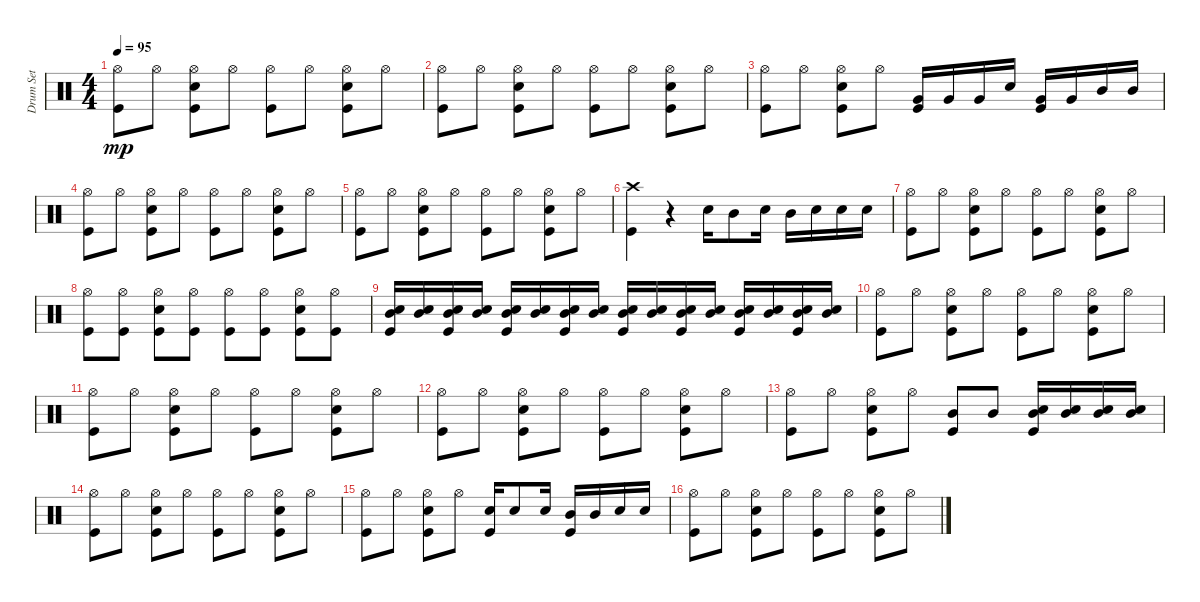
\track ("Drum Set" "Drum Set") {instrument percussion}
\staff {score}
\articulation defaults
\ts (4 4)
\tempo 95
\clef neutral
\ks c
("Kick (hit)" "Hi-Hat (open)").8{dy mp} "Hi-Hat (open)".8 ("Kick (hit)" "Snare (hit) 2" "Hi-Hat (open)").8 "Hi-Hat (open)".8 ("Kick (hit)" "Hi-Hat (open)").8 "Hi-Hat (open)".8 ("Kick (hit)" "Snare (hit) 2" "Hi-Hat (open)").8 "Hi-Hat (open)".8 |
("Kick (hit)" "Hi-Hat (open)").8 "Hi-Hat (open)".8 ("Kick (hit)" "Snare (hit) 2" "Hi-Hat (open)").8 "Hi-Hat (open)".8 ("Kick (hit)" "Hi-Hat (open)").8 "Hi-Hat (open)".8 ("Kick (hit)" "Snare (hit) 2" "Hi-Hat (open)").8 "Hi-Hat (open)".8 |
("Kick (hit)" "Hi-Hat (open)").8 "Hi-Hat (open)".8 ("Kick (hit)" "Snare (hit) 2" "Hi-Hat (open)").8 "Hi-Hat (open)".8 ("Kick (hit)" "Very Low Tom (hit)").16 "Very Low Tom (hit)".16 "Very Low Tom (hit)".16 "Snare (hit) 2".16 ("Kick (hit)" "Very Low Tom (hit)").16 "Very Low Tom (hit)".16 "Mid Tom (hit)".16 "Mid Tom (hit)".16 |
("Kick (hit)" "Hi-Hat (open)").8 "Hi-Hat (open)".8 ("Kick (hit)" "Snare (hit) 2" "Hi-Hat (open)").8 "Hi-Hat (open)".8 ("Kick (hit)" "Hi-Hat (open)").8 "Hi-Hat (open)".8 ("Kick (hit)" "Snare (hit) 2" "Hi-Hat (open)").8 "Hi-Hat (open)".8 |
("Kick (hit)" "Hi-Hat (open)").8 "Hi-Hat (open)".8 ("Kick (hit)" "Snare (hit) 2" "Hi-Hat (open)").8 "Hi-Hat (open)".8 ("Kick (hit)" "Hi-Hat (open)").8 "Hi-Hat (open)".8 ("Kick (hit)" "Snare (hit) 2" "Hi-Hat (open)").8 "Hi-Hat (open)".8 |
("Kick (hit)" "Crash high (hit)").4 r.4 "Snare (hit) 2".16 "Mid Tom (hit)".8 "Snare (hit) 2".16 "Mid Tom (hit)".16 "Snare (hit) 2".16 "Snare (hit) 2".16 "Snare (hit) 2".16 |
("Kick (hit)" "Hi-Hat (open)").8 "Hi-Hat (open)".8 ("Kick (hit)" "Snare (hit) 2" "Hi-Hat (open)").8 "Hi-Hat (open)".8 ("Kick (hit)" "Hi-Hat (open)").8 "Hi-Hat (open)".8 ("Kick (hit)" "Snare (hit) 2" "Hi-Hat (open)").8 "Hi-Hat (open)".8 |
("Kick (hit)" "Hi-Hat (open)").8 ("Kick (hit)" "Hi-Hat (open)").8 ("Snare (hit) 2" "Hi-Hat (open)" "Kick (hit)").8 ("Kick (hit)" "Hi-Hat (open)").8 ("Kick (hit)" "Hi-Hat (open)").8 ("Kick (hit)" "Hi-Hat (open)").8 ("Snare (hit) 2" "Kick (hit)" "Hi-Hat (open)").8 ("Kick (hit)" "Hi-Hat (open)").8 |
("Kick (hit)" "Snare (hit) 2" "Mid Tom (hit)").16 ("Snare (hit) 2" "Mid Tom (hit)").16 ("Kick (hit)" "Mid Tom (hit)" "Snare (hit) 2").16 ("Mid Tom (hit)" "Snare (hit) 2").16 ("Kick (hit)" "Mid Tom (hit)" "Snare (hit) 2").16 ("Mid Tom (hit)" "Snare (hit) 2").16 ("Kick (hit)" "Snare (hit) 2" "Mid Tom (hit)").16 ("Snare (hit) 2" "Mid Tom (hit)").16 ("Kick (hit)" "Snare (hit) 2" "Mid Tom (hit)").16 ("Mid Tom (hit)" "Snare (hit) 2").16 ("Kick (hit)" "Snare (hit) 2" "Mid Tom (hit)").16 ("Snare (hit) 2" "Mid Tom (hit)").16 ("Kick (hit)" "Snare (hit) 2" "Mid Tom (hit)").16 ("Snare (hit) 2" "Mid Tom (hit)").16 ("Kick (hit)" "Mid Tom (hit)" "Snare (hit) 2").16 ("Snare (hit) 2" "Mid Tom (hit)").16 |
("Kick (hit)" "Hi-Hat (open)").8 "Hi-Hat (open)".8 ("Kick (hit)" "Snare (hit) 2" "Hi-Hat (open)").8 "Hi-Hat (open)".8 ("Kick (hit)" "Hi-Hat (open)").8 "Hi-Hat (open)".8 ("Kick (hit)" "Snare (hit) 2" "Hi-Hat (open)").8 "Hi-Hat (open)".8 |
("Kick (hit)" "Hi-Hat (open)").8 "Hi-Hat (open)".8 ("Kick (hit)" "Snare (hit) 2" "Hi-Hat (open)").8 "Hi-Hat (open)".8 ("Kick (hit)" "Hi-Hat (open)").8 "Hi-Hat (open)".8 ("Kick (hit)" "Snare (hit) 2" "Hi-Hat (open)").8 "Hi-Hat (open)".8 |
("Kick (hit)" "Hi-Hat (open)").8 "Hi-Hat (open)".8 ("Kick (hit)" "Snare (hit) 2" "Hi-Hat (open)").8 "Hi-Hat (open)".8 ("Kick (hit)" "Hi-Hat (open)").8 "Hi-Hat (open)".8 ("Kick (hit)" "Snare (hit) 2" "Hi-Hat (open)").8 "Hi-Hat (open)".8 |
("Kick (hit)" "Hi-Hat (open)").8 "Hi-Hat (open)".8 ("Kick (hit)" "Snare (hit) 2" "Hi-Hat (open)").8 "Hi-Hat (open)".8 ("Kick (hit)" "Mid Tom (hit)").8 "Mid Tom (hit)".8 ("Kick (hit)" "Snare (hit) 2" "Mid Tom (hit)").16 ("Mid Tom (hit)" "Snare (hit) 2").16 ("Mid Tom (hit)" "Snare (hit) 2").16 ("Snare (hit) 2" "Mid Tom (hit)").16 |
("Kick (hit)" "Hi-Hat (open)").8 "Hi-Hat (open)".8 ("Kick (hit)" "Snare (hit) 2" "Hi-Hat (open)").8 "Hi-Hat (open)".8 ("Kick (hit)" "Hi-Hat (open)").8 "Hi-Hat (open)".8 ("Kick (hit)" "Snare (hit) 2" "Hi-Hat (open)").8 "Hi-Hat (open)".8 |
("Kick (hit)" "Hi-Hat (open)").8 "Hi-Hat (open)".8 ("Kick (hit)" "Snare (hit) 2" "Hi-Hat (open)").8 "Hi-Hat (open)".8 ("Kick (hit)" "Snare (hit) 2").16 "Snare (hit) 2".8 "Snare (hit) 2".16 ("Kick (hit)" "Mid Tom (hit)").16 "Mid Tom (hit)".16 "Snare (hit) 2".16 "Snare (hit) 2".16 |
("Kick (hit)" "Hi-Hat (open)").8 "Hi-Hat (open)".8 ("Kick (hit)" "Snare (hit) 2" "Hi-Hat (open)").8 "Hi-Hat (open)".8 ("Kick (hit)" "Hi-Hat (open)").8 "Hi-Hat (open)".8 ("Kick (hit)" "Snare (hit) 2" "Hi-Hat (open)").8 "Hi-Hat (open)".8
